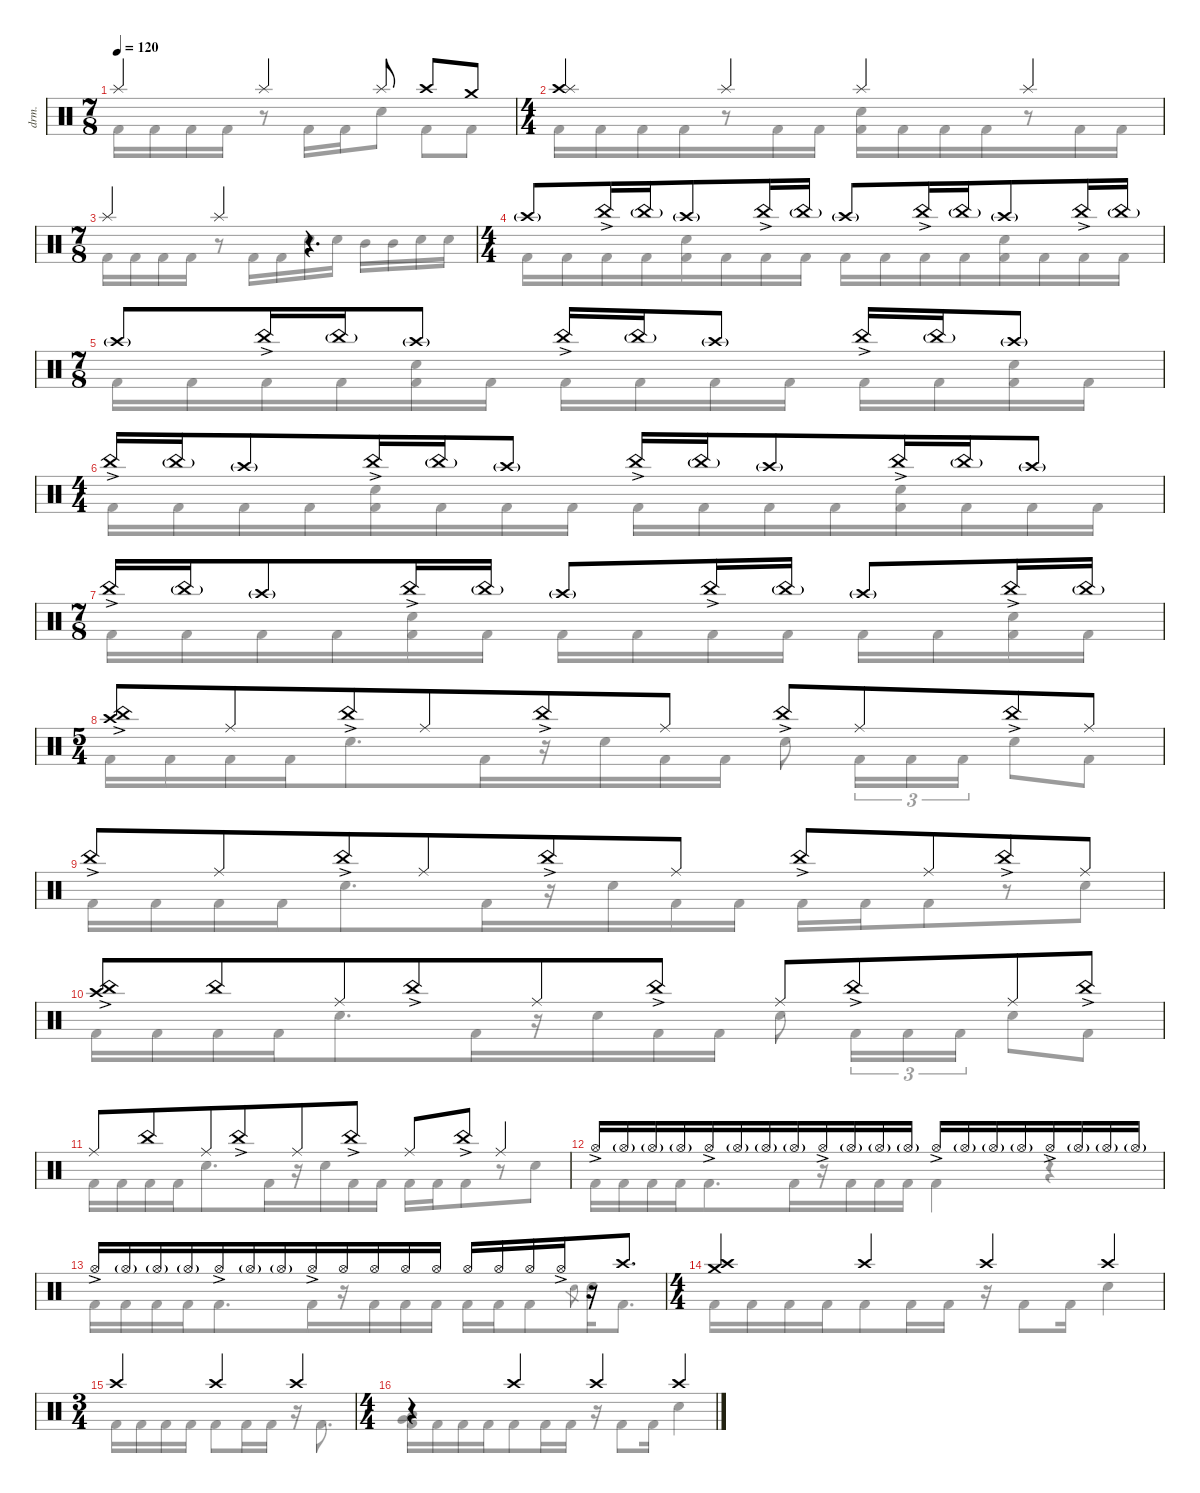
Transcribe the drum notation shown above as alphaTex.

\defaultSystemsLayout 4
\hideDynamics
\bracketExtendMode nobrackets
\otherSystemsTrackNameOrientation horizontal
\track ("B. Richardson Drums" "drm.") {instrument percussion}
\staff {score}
\articulation defaults
\voice
\ts (7 8)
\beaming (8 3 2 2)
\tempo 120
\clef neutral
\ks c "Splash (hit)".4{dy f beam Up} "Splash (hit)".4{beam Up} "Splash (hit)".8{beam Up} "Crash high (hit)".8{dy mf beam Up} "Crash medium (hit)".8{beam Up}
|
\ts (4 4)
\beaming (8 4 4)
("Crash high (hit)" "Splash (hit)").4{dy f beam Up} "Splash (hit)".4{beam Up} "Splash (hit)".4{beam Up} "Splash (hit)".4{beam Up} |
\ts (7 8)
\beaming (8 3 2 2)
"Splash (hit)".4{beam Up} "Splash (hit)".4{beam Up} r.4{d beam Up} |
\ts (4 4)
\beaming (8 4 4)
"Crash high (hit)"{g}.8{beam Up} "China (hit)"{ac}.16{beam Up} "China (hit)"{g}.16{dy pp beam Up} "Crash high (hit)"{g}.8{dy f beam Up} "China (hit)"{ac}.16{beam Up} "China (hit)"{g}.16{dy pp beam Up} "Crash high (hit)"{g}.8{dy f beam Up} "China (hit)"{ac}.16{beam Up} "China (hit)"{g}.16{dy pp beam Up} "Crash high (hit)"{g}.8{dy f beam Up} "China (hit)"{ac}.16{beam Up} "China (hit)"{g}.16{dy pp beam Up} |
\ts (7 8)
\beaming (8 3 2 2)
"Crash high (hit)"{g}.8{dy f beam Up} "China (hit)"{ac}.16{beam Up} "China (hit)"{g}.16{dy pp beam Up} "Crash high (hit)"{g}.8{dy f beam Up} "China (hit)"{ac}.16{beam Up} "China (hit)"{g}.16{dy pp beam Up} "Crash high (hit)"{g}.8{dy f beam Up} "China (hit)"{ac}.16{beam Up} "China (hit)"{g}.16{dy pp beam Up} "Crash high (hit)"{g}.8{dy f beam Up} |
\ts (4 4)
\beaming (8 4 4)
"China (hit)"{ac}.16{beam Up} "China (hit)"{g}.16{dy pp beam Up} "Crash high (hit)"{g}.8{dy f beam Up} "China (hit)"{ac}.16{beam Up} "China (hit)"{g}.16{dy pp beam Up} "Crash high (hit)"{g}.8{dy f beam Up} "China (hit)"{ac}.16{beam Up} "China (hit)"{g}.16{dy pp beam Up} "Crash high (hit)"{g}.8{dy f beam Up} "China (hit)"{ac}.16{beam Up} "China (hit)"{g}.16{dy pp beam Up} "Crash high (hit)"{g}.8{dy f beam Up} |
\ts (7 8)
\beaming (8 3 2 2)
"China (hit)"{ac}.16{beam Up} "China (hit)"{g}.16{dy pp beam Up} "Crash high (hit)"{g}.8{dy f beam Up} "China (hit)"{ac}.16{beam Up} "China (hit)"{g}.16{dy pp beam Up} "Crash high (hit)"{g}.8{dy f beam Up} "China (hit)"{ac}.16{beam Up} "China (hit)"{g}.16{dy pp beam Up} "Crash high (hit)"{g}.8{dy f beam Up} "China (hit)"{ac}.16{beam Up} "China (hit)"{g}.16{dy pp beam Up} |
\ts (5 4)
\beaming (8 6 4)
("Crash high (hit)" "China (hit)"{ac}).8{dy f beam Up} "Ride (middle)".8{dy mf beam Up} "China (hit)"{ac}.8{dy f beam Up} "Ride (middle)".8{dy mf beam Up} "China (hit)"{ac}.8{dy f beam Up} "Ride (middle)".8{dy mf beam Up} "China (hit)"{ac}.8{dy f beam Up} "Ride (middle)".8{dy mf beam Up} "China (hit)"{ac}.8{dy f beam Up} "Ride (middle)".8{dy mf beam Up} |
"China (hit)"{ac}.8{dy f beam Up} "Ride (middle)".8{dy mf beam Up} "China (hit)"{ac}.8{dy f beam Up} "Ride (middle)".8{dy mf beam Up} "China (hit)"{ac}.8{dy f beam Up} "Ride (middle)".8{dy mf beam Up} "China (hit)"{ac}.8{dy f beam Up} "Ride (middle)".8{dy mf beam Up} "China (hit)"{ac}.8{dy f beam Up} "Ride (middle)".8{dy mf beam Up} |
("Crash high (hit)" "China (hit)"{ac}).8{beam Up} "China (hit)".8{dy f beam Up} "Ride (middle)".8{dy mf beam Up} "China (hit)"{ac}.8{dy f beam Up} "Ride (middle)".8{dy mf beam Up} "China (hit)"{ac}.8{dy f beam Up} "Ride (middle)".8{dy mf beam Up} "China (hit)"{ac}.8{dy f beam Up} "Ride (middle)".8{dy mf beam Up} "China (hit)"{ac}.8{dy f beam Up} |
"Ride (middle)".8{dy mf beam Up} "China (hit)".8{dy f beam Up} "Ride (middle)".8{dy mf beam Up} "China (hit)"{ac}.8{dy f beam Up} "Ride (middle)".8{dy mf beam Up} "China (hit)"{ac}.8{dy f beam Up} "Ride (middle)".8{dy mf beam Up} "China (hit)"{ac}.8{dy f beam Up} "Ride (middle)".4{dy mf beam Up} |
"Hi-Hat (open)"{ac}.16{dy mp beam Up} "Hi-Hat (open)"{g}.16{dy mf beam Up} "Hi-Hat (open)"{g}.16{beam Up} "Hi-Hat (open)"{g}.16{beam Up} "Hi-Hat (open)"{ac}.16{dy mp beam Up} "Hi-Hat (open)"{g}.16{dy mf beam Up} "Hi-Hat (open)"{g}.16{beam Up} "Hi-Hat (open)"{g}.16{beam Up} "Hi-Hat (open)"{ac}.16{dy mp beam Up} "Hi-Hat (open)"{g}.16{dy mf beam Up} "Hi-Hat (open)"{g}.16{beam Up} "Hi-Hat (open)"{g}.16{beam Up} "Hi-Hat (open)"{ac}.16{dy mp beam Up} "Hi-Hat (open)"{g}.16{dy mf beam Up} "Hi-Hat (open)"{g}.16{beam Up} "Hi-Hat (open)"{g}.16{beam Up} "Hi-Hat (open)"{ac}.16{dy mp beam Up} "Hi-Hat (open)"{g}.16{dy mf beam Up} "Hi-Hat (open)"{g}.16{beam Up} "Hi-Hat (open)"{g}.16{beam Up} |
"Hi-Hat (open)"{ac}.16{dy mp beam Up} "Hi-Hat (open)"{g}.16{dy mf beam Up} "Hi-Hat (open)"{g}.16{beam Up} "Hi-Hat (open)"{g}.16{beam Up} "Hi-Hat (open)"{ac}.16{dy mp beam Up} "Hi-Hat (open)"{g}.16{dy mf beam Up} "Hi-Hat (open)"{g}.16{beam Up} "Hi-Hat (open)"{ac}.16{dy mp beam Up} "Hi-Hat (open)".16{dy mf beam Up} "Hi-Hat (open)".16{beam Up} "Hi-Hat (open)".16{beam Up} "Hi-Hat (open)".16{dy f beam Up} "Hi-Hat (open)".16{beam Up} "Hi-Hat (open)".16{beam Up} "Hi-Hat (open)".16{beam Up} "Hi-Hat (open)"{ac}.16{beam Up} r.16{beam Up} "Crash high (hit)".8{d beam Up} |
\ts (4 4)
\beaming (8 4 4)
("Crash high (hit)" "Crash medium (hit)").4{beam Up} "Crash high (hit)".4{dy mf beam Up} "Crash high (hit)".4{beam Up} "Crash high (hit)".4{beam Up} |
\ts (3 4)
\beaming (8 2 2 2)
"Crash high (hit)".4{beam Up} "Crash high (hit)".4{beam Up} "Crash high (hit)".4{beam Up} |
\ts (4 4)
\beaming (8 4 4)
r.4{beam Up} "Crash high (hit)".4{beam Up} "Crash high (hit)".4{beam Up} "Crash high (hit)".4{beam Up}
\voice
\clef neutral
\ottava regular
\simile none
\ks c "Kick (hit) 2".16{dy fff beam Down} "Kick (hit) 2".16{beam Down} "Kick (hit) 2".16{beam Down} "Kick (hit) 2".16{beam Down}
r.8{beam Down} "Kick (hit) 2".16{beam Down} "Kick (hit) 2".16{beam Down} "Snare (hit) 2".8{beam Down} "Kick (hit) 2".8{beam Down} "Kick (hit) 2".8{beam Down} |
"Kick (hit) 2".16{beam Down} "Kick (hit) 2".16{beam Down} "Kick (hit) 2".16{beam Down} "Kick (hit) 2".16{beam Down} r.8{beam Down} "Kick (hit) 2".16{beam Down} "Kick (hit) 2".16{beam Down} ("Snare (hit) 2" "Kick (hit) 2").16{beam Down} "Kick (hit) 2".16{beam Down} "Kick (hit) 2".16{beam Down} "Kick (hit) 2".16{beam Down} r.8{beam Down} "Kick (hit) 2".16{beam Down} "Kick (hit) 2".16{beam Down} |
"Kick (hit) 2".16{beam Down} "Kick (hit) 2".16{beam Down} "Kick (hit) 2".16{beam Down} "Kick (hit) 2".16{beam Down} r.8{beam Down} "Kick (hit) 2".16{beam Down} "Kick (hit) 2".16{beam Down} "Snare (hit) 2".16{beam Down} "Snare (hit) 2".16{beam Down} "Mid Tom (hit)".16{beam Down} "Mid Tom (hit)".16{beam Down} "Snare (hit) 2".16{beam Down} "Snare (hit) 2".16{beam Down} |
"Kick (hit) 2".16{beam Down} "Kick (hit) 2".16{beam Down} "Kick (hit) 2".16{beam Down} "Kick (hit) 2".16{beam Down} ("Snare (hit) 2" "Kick (hit) 2").16{beam Down} "Kick (hit) 2".16{beam Down} "Kick (hit) 2".16{beam Down} "Kick (hit) 2".16{beam Down} "Kick (hit) 2".16{beam Down} "Kick (hit) 2".16{beam Down} "Kick (hit) 2".16{beam Down} "Kick (hit) 2".16{beam Down} ("Snare (hit) 2" "Kick (hit) 2").16{beam Down} "Kick (hit) 2".16{beam Down} "Kick (hit) 2".16{beam Down} "Kick (hit) 2".16{beam Down} |
"Kick (hit) 2".16{beam Down} "Kick (hit) 2".16{beam Down} "Kick (hit) 2".16{beam Down} "Kick (hit) 2".16{beam Down} ("Snare (hit) 2" "Kick (hit) 2").16{beam Down} "Kick (hit) 2".16{beam Down} "Kick (hit) 2".16{beam Down} "Kick (hit) 2".16{beam Down} "Kick (hit) 2".16{beam Down} "Kick (hit) 2".16{beam Down} "Kick (hit) 2".16{beam Down} "Kick (hit) 2".16{beam Down} ("Snare (hit) 2" "Kick (hit) 2").16{beam Down} "Kick (hit) 2".16{beam Down} |
"Kick (hit) 2".16{beam Down} "Kick (hit) 2".16{beam Down} "Kick (hit) 2".16{beam Down} "Kick (hit) 2".16{beam Down} ("Snare (hit) 2" "Kick (hit) 2").16{beam Down} "Kick (hit) 2".16{beam Down} "Kick (hit) 2".16{beam Down} "Kick (hit) 2".16{beam Down} "Kick (hit) 2".16{beam Down} "Kick (hit) 2".16{beam Down} "Kick (hit) 2".16{beam Down} "Kick (hit) 2".16{beam Down} ("Snare (hit) 2" "Kick (hit) 2").16{beam Down} "Kick (hit) 2".16{beam Down} "Kick (hit) 2".16{beam Down} "Kick (hit) 2".16{beam Down} |
"Kick (hit) 2".16{beam Down} "Kick (hit) 2".16{beam Down} "Kick (hit) 2".16{beam Down} "Kick (hit) 2".16{beam Down} ("Snare (hit) 2" "Kick (hit) 2").16{beam Down} "Kick (hit) 2".16{beam Down} "Kick (hit) 2".16{beam Down} "Kick (hit) 2".16{beam Down} "Kick (hit) 2".16{beam Down} "Kick (hit) 2".16{beam Down} "Kick (hit) 2".16{beam Down} "Kick (hit) 2".16{beam Down} ("Snare (hit) 2" "Kick (hit) 2").16{beam Down} "Kick (hit) 2".16{beam Down} |
"Kick (hit) 2".16{beam Down} "Kick (hit) 2".16{beam Down} "Kick (hit) 2".16{beam Down} "Kick (hit) 2".16{beam Down} "Snare (hit) 2".8{d beam Down} "Kick (hit) 2".16{beam Down} r.16{beam Down} "Snare (hit) 2".16{beam Down} "Kick (hit) 2".16{beam Down} "Kick (hit) 2".16{beam Down} "Snare (hit) 2".8{beam Down} "Kick (hit) 2".16{tu (3 2) beam Down} "Kick (hit) 2".16{tu (3 2) beam Down} "Kick (hit) 2".16{tu (3 2) beam Down} "Snare (hit) 2".8{beam Down} "Kick (hit) 2".8{beam Down} |
"Kick (hit) 2".16{beam Down} "Kick (hit) 2".16{beam Down} "Kick (hit) 2".16{beam Down} "Kick (hit) 2".16{beam Down} "Snare (hit) 2".8{d beam Down} "Kick (hit) 2".16{beam Down} r.16{beam Down} "Snare (hit) 2".16{beam Down} "Kick (hit) 2".16{beam Down} "Kick (hit) 2".16{beam Down} "Kick (hit) 2".16{beam Down} "Kick (hit) 2".16{beam Down} "Kick (hit) 2".8{beam Down} r.8{beam Down} "Snare (hit) 2".8{beam Down} |
"Kick (hit) 2".16{beam Down} "Kick (hit) 2".16{beam Down} "Kick (hit) 2".16{beam Down} "Kick (hit) 2".16{beam Down} "Snare (hit) 2".8{d beam Down} "Kick (hit) 2".16{beam Down} r.16{beam Down} "Snare (hit) 2".16{beam Down} "Kick (hit) 2".16{beam Down} "Kick (hit) 2".16{beam Down} "Snare (hit) 2".8{beam Down} "Kick (hit) 2".16{tu (3 2) beam Down} "Kick (hit) 2".16{tu (3 2) beam Down} "Kick (hit) 2".16{tu (3 2) beam Down} "Snare (hit) 2".8{beam Down} "Kick (hit) 2".8{beam Down} |
"Kick (hit) 2".16{beam Down} "Kick (hit) 2".16{beam Down} "Kick (hit) 2".16{beam Down} "Kick (hit) 2".16{beam Down} "Snare (hit) 2".8{d beam Down} "Kick (hit) 2".16{beam Down} r.16{beam Down} "Snare (hit) 2".16{beam Down} "Kick (hit) 2".16{beam Down} "Kick (hit) 2".16{beam Down} "Kick (hit) 2".16{beam Down} "Kick (hit) 2".16{beam Down} "Kick (hit) 2".8{beam Down} r.8{beam Down} "Snare (hit) 2".8{beam Down} |
"Kick (hit) 2".16{beam Down} "Kick (hit) 2".16{beam Down} "Kick (hit) 2".16{beam Down} "Kick (hit) 2".16{beam Down} "Kick (hit) 2".8{d beam Down} "Kick (hit) 2".16{beam Down} r.16{beam Down} "Kick (hit) 2".16{beam Down} "Kick (hit) 2".16{beam Down} "Kick (hit) 2".16{beam Down} "Kick (hit) 2".4{beam Down} r.4{beam Down} |
"Kick (hit) 2".16{beam Down} "Kick (hit) 2".16{beam Down} "Kick (hit) 2".16{beam Down} "Kick (hit) 2".16{beam Down} "Kick (hit) 2".8{d beam Down} "Kick (hit) 2".16{beam Down} r.16{beam Down} "Kick (hit) 2".16{beam Down} "Kick (hit) 2".16{beam Down} "Kick (hit) 2".16{beam Down} "Kick (hit) 2".16{beam Down} "Kick (hit) 2".16{beam Down} "Kick (hit) 2".8{beam Down} "Electric Snare (hit)".8{gr dy ff beam Down} "Snare (hit) 2".16{dy fff beam Down} "Kick (hit) 2".8{d beam Down} |
"Kick (hit) 2".16{beam Down} "Kick (hit) 2".16{beam Down} "Kick (hit) 2".16{beam Down} "Kick (hit) 2".16{beam Down} "Kick (hit) 2".8{beam Down} "Kick (hit) 2".16{beam Down} "Kick (hit) 2".16{beam Down} r.16{beam Down} "Kick (hit) 2".8{beam Down} "Kick (hit) 2".16{beam Down} "Snare (hit) 2".4{beam Down} |
"Kick (hit) 2".16{beam Down} "Kick (hit) 2".16{beam Down} "Kick (hit) 2".16{beam Down} "Kick (hit) 2".16{beam Down} "Kick (hit) 2".8{beam Down} "Kick (hit) 2".16{beam Down} "Kick (hit) 2".16{beam Down} r.16{beam Down} "Kick (hit) 2".8{d beam Down} |
("Low Tom (hit)" "Very Low Tom (hit)" "Kick (hit) 2").16{beam Down} "Kick (hit) 2".16{beam Down} "Kick (hit) 2".16{beam Down} "Kick (hit) 2".16{beam Down} "Kick (hit) 2".8{beam Down} "Kick (hit) 2".16{beam Down} "Kick (hit) 2".16{beam Down} r.16{beam Down} "Kick (hit) 2".8{beam Down} "Kick (hit) 2".16{beam Down} "Snare (hit) 2".4{beam Down}
